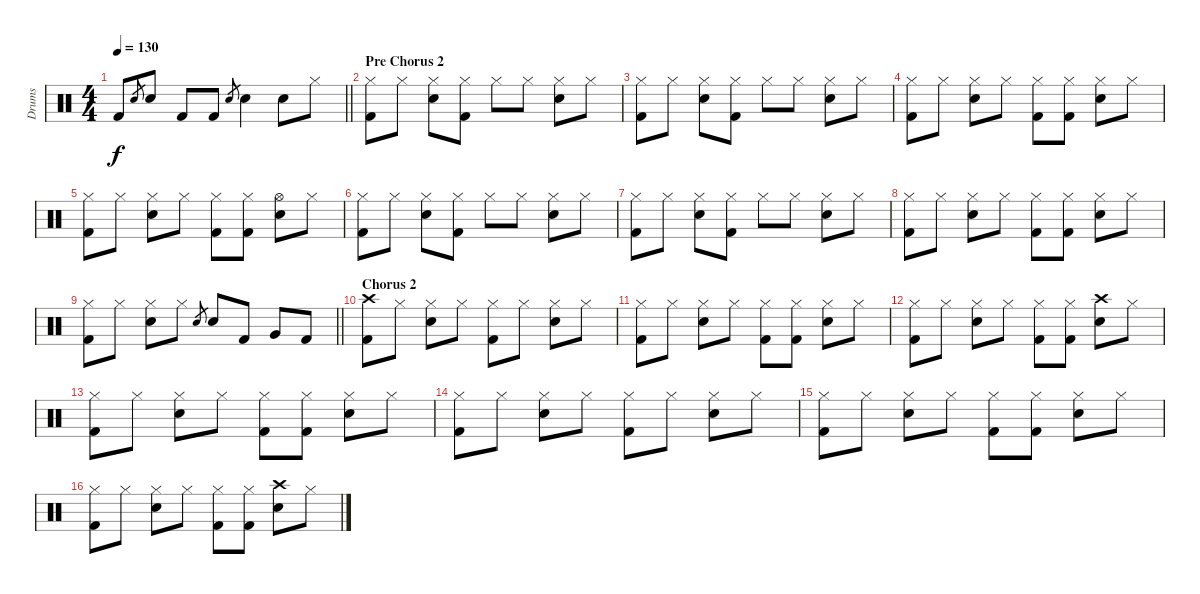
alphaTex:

\track ("Drums" "Drums") {instrument percussion}
\staff {score}
\articulation defaults
\ts (4 4)
\tempo 130
\clef neutral
\barLineRight lightlight
\ks c "Kick (hit) 2".8{dy f} "Snare (hit) 2".8{gr} "Snare (hit) 2".8 "Kick (hit) 2".8 "Kick (hit) 2".8 "Snare (hit) 2".8{gr} "Snare (hit) 2".4 "Snare (hit) 2".8 "Hi-Hat (closed)".8
|
\section ("" "Pre Chorus 2")
("Hi-Hat (closed)" "Kick (hit) 2").8 "Hi-Hat (closed)".8 ("Hi-Hat (closed)" "Snare (hit) 2").8 ("Hi-Hat (closed)" "Kick (hit) 2").8 "Hi-Hat (closed)".8 "Hi-Hat (closed)".8 ("Hi-Hat (closed)" "Snare (hit) 2").8 "Hi-Hat (closed)".8 |
("Hi-Hat (closed)" "Kick (hit) 2").8 "Hi-Hat (closed)".8 ("Hi-Hat (closed)" "Snare (hit) 2").8 ("Hi-Hat (closed)" "Kick (hit) 2").8 "Hi-Hat (closed)".8 "Hi-Hat (closed)".8 ("Hi-Hat (closed)" "Snare (hit) 2").8 "Hi-Hat (closed)".8 |
("Hi-Hat (closed)" "Kick (hit) 2").8 "Hi-Hat (closed)".8 ("Hi-Hat (closed)" "Snare (hit) 2").8 "Hi-Hat (closed)".8 ("Hi-Hat (closed)" "Kick (hit) 2").8 ("Hi-Hat (closed)" "Kick (hit) 2").8 ("Hi-Hat (closed)" "Snare (hit) 2").8 "Hi-Hat (closed)".8 |
("Hi-Hat (closed)" "Kick (hit) 2").8 "Hi-Hat (closed)".8 ("Hi-Hat (closed)" "Snare (hit) 2").8 "Hi-Hat (closed)".8 ("Hi-Hat (closed)" "Kick (hit) 2").8 ("Hi-Hat (closed)" "Kick (hit) 2").8 ("Hi-Hat (open)" "Snare (hit) 2").8 "Hi-Hat (closed)".8 |
("Hi-Hat (closed)" "Kick (hit) 2").8 "Hi-Hat (closed)".8 ("Hi-Hat (closed)" "Snare (hit) 2").8 ("Hi-Hat (closed)" "Kick (hit) 2").8 "Hi-Hat (closed)".8 "Hi-Hat (closed)".8 ("Hi-Hat (closed)" "Snare (hit) 2").8 "Hi-Hat (closed)".8 |
("Hi-Hat (closed)" "Kick (hit) 2").8 "Hi-Hat (closed)".8 ("Hi-Hat (closed)" "Snare (hit) 2").8 ("Hi-Hat (closed)" "Kick (hit) 2").8 "Hi-Hat (closed)".8 "Hi-Hat (closed)".8 ("Hi-Hat (closed)" "Snare (hit) 2").8 "Hi-Hat (closed)".8 |
("Hi-Hat (closed)" "Kick (hit) 2").8 "Hi-Hat (closed)".8 ("Hi-Hat (closed)" "Snare (hit) 2").8 "Hi-Hat (closed)".8 ("Hi-Hat (closed)" "Kick (hit) 2").8 ("Hi-Hat (closed)" "Kick (hit) 2").8 ("Hi-Hat (closed)" "Snare (hit) 2").8 "Hi-Hat (closed)".8 |
\barLineRight lightlight
("Hi-Hat (closed)" "Kick (hit) 2").8 "Hi-Hat (closed)".8 ("Hi-Hat (closed)" "Snare (hit) 2").8 "Hi-Hat (closed)".8 "Snare (hit) 2".8{gr} "Snare (hit) 2".8 "Kick (hit) 2".8 "Very Low Tom (hit)".8 "Kick (hit) 2".8 |
\section ("" "Chorus 2")
("Crash high (hit)" "Kick (hit) 2").8 "Hi-Hat (closed)".8 ("Hi-Hat (closed)" "Snare (hit) 2").8 "Hi-Hat (closed)".8 ("Hi-Hat (closed)" "Kick (hit) 2").8 "Hi-Hat (closed)".8 ("Hi-Hat (closed)" "Snare (hit) 2").8 "Hi-Hat (closed)".8 |
("Hi-Hat (closed)" "Kick (hit) 2").8 "Hi-Hat (closed)".8 ("Hi-Hat (closed)" "Snare (hit) 2").8 "Hi-Hat (closed)".8 ("Hi-Hat (closed)" "Kick (hit) 2").8 ("Hi-Hat (closed)" "Kick (hit) 2").8 ("Hi-Hat (closed)" "Snare (hit) 2").8 "Hi-Hat (closed)".8 |
("Hi-Hat (closed)" "Kick (hit) 2").8 "Hi-Hat (closed)".8 ("Hi-Hat (closed)" "Snare (hit) 2").8 "Hi-Hat (closed)".8 ("Hi-Hat (closed)" "Kick (hit) 2").8 ("Hi-Hat (closed)" "Kick (hit) 2").8 ("Crash high (hit)" "Snare (hit) 2").8 "Hi-Hat (closed)".8 |
("Hi-Hat (closed)" "Kick (hit) 2").8 "Hi-Hat (closed)".8 ("Hi-Hat (closed)" "Snare (hit) 2").8 "Hi-Hat (closed)".8 ("Hi-Hat (closed)" "Kick (hit) 2").8 ("Hi-Hat (closed)" "Kick (hit) 2").8 ("Hi-Hat (closed)" "Snare (hit) 2").8 "Hi-Hat (closed)".8 |
("Hi-Hat (closed)" "Kick (hit) 2").8 "Hi-Hat (closed)".8 ("Hi-Hat (closed)" "Snare (hit) 2").8 "Hi-Hat (closed)".8 ("Hi-Hat (closed)" "Kick (hit) 2").8 "Hi-Hat (closed)".8 ("Hi-Hat (closed)" "Snare (hit) 2").8 "Hi-Hat (closed)".8 |
("Hi-Hat (closed)" "Kick (hit) 2").8 "Hi-Hat (closed)".8 ("Hi-Hat (closed)" "Snare (hit) 2").8 "Hi-Hat (closed)".8 ("Hi-Hat (closed)" "Kick (hit) 2").8 ("Hi-Hat (closed)" "Kick (hit) 2").8 ("Hi-Hat (closed)" "Snare (hit) 2").8 "Hi-Hat (closed)".8 |
("Hi-Hat (closed)" "Kick (hit) 2").8 "Hi-Hat (closed)".8 ("Hi-Hat (closed)" "Snare (hit) 2").8 "Hi-Hat (closed)".8 ("Hi-Hat (closed)" "Kick (hit) 2").8 ("Hi-Hat (closed)" "Kick (hit) 2").8 ("Crash high (hit)" "Snare (hit) 2").8 "Hi-Hat (closed)".8
